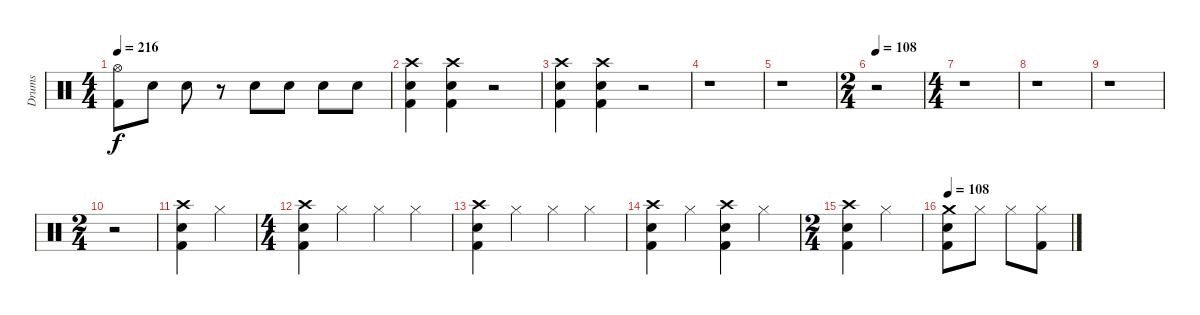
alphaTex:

\track ("Drums" "Drums") {instrument percussion}
\staff {score}
\articulation defaults
\ts (4 4)
\tempo 216
\clef neutral
\ks c
("Hi-Hat (open)" "Kick (hit) 2").8{dy f} "Snare (hit) 2".8 "Snare (hit) 2".8 r.8 "Snare (hit) 2".8 "Snare (hit) 2".8 "Snare (hit) 2".8 "Snare (hit) 2".8 |
("Crash high (hit)" "Snare (hit) 2" "Kick (hit) 2").4 ("Crash high (hit)" "Snare (hit) 2" "Kick (hit) 2").4 r.2 |
("Crash high (hit)" "Snare (hit) 2" "Kick (hit) 2").4 ("Crash high (hit)" "Snare (hit) 2" "Kick (hit) 2").4 r.2 |
r.1 |
r.1 |
\ts (2 4)
\tempo 108
r.2 |
\ts (4 4)
r.1 |
r.1 |
r.1 |
\ts (2 4)
r.2 |
("Crash high (hit)" "Snare (hit) 2" "Kick (hit) 2").4 "Hi-Hat (closed)".4 |
\ts (4 4)
("Crash high (hit)" "Snare (hit) 2" "Kick (hit) 2").4 "Hi-Hat (closed)".4 "Hi-Hat (closed)".4 "Hi-Hat (closed)".4 |
("Crash high (hit)" "Snare (hit) 2" "Kick (hit) 2").4 "Hi-Hat (closed)".4 "Hi-Hat (closed)".4 "Hi-Hat (closed)".4 |
("Crash high (hit)" "Snare (hit) 2" "Kick (hit) 2").4 "Hi-Hat (closed)".4 ("Crash high (hit)" "Snare (hit) 2" "Kick (hit) 2").4 "Hi-Hat (closed)".4 |
\ts (2 4)
("Crash high (hit)" "Snare (hit) 2" "Kick (hit) 2").4 "Hi-Hat (closed)".4 |
\tempo 108
("Crash medium (hit)" "Snare (hit) 2" "Kick (hit) 2").8 "Hi-Hat (closed)".8 "Hi-Hat (closed)".8 ("Hi-Hat (closed)" "Kick (hit) 2").8
